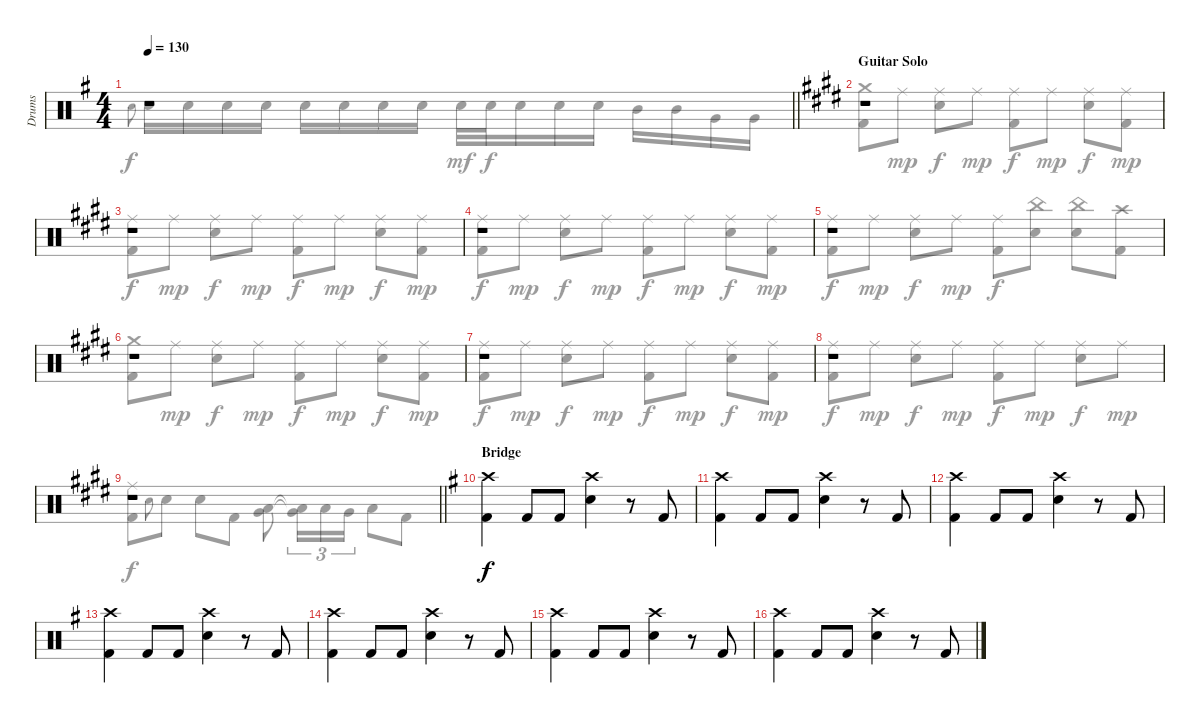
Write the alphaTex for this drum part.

\track ("Drums" "Drums") {instrument percussion}
\staff {score}
\articulation defaults
\voice
\ts (4 4)
\tempo 130
\clef neutral
\barLineRight lightlight
\ks eminor
r.1{dy f} |
\section ("" "Guitar Solo")
\ks c#minor
r.1 |
r.1 |
r.1 |
r.1 |
r.1 |
r.1 |
r.1 |
\barLineRight lightlight
r.1 |
\section ("" "Bridge")
\ks eminor
("Crash high (hit)" "Kick (hit) 2").4 "Kick (hit) 2".8 "Kick (hit) 2".8 ("Crash high (hit)" "Snare (hit) 2").4 r.8 "Kick (hit) 2".8 |
("Crash high (hit)" "Kick (hit) 2").4 "Kick (hit) 2".8 "Kick (hit) 2".8 ("Crash high (hit)" "Snare (hit) 2").4 r.8 "Kick (hit) 2".8 |
("Crash high (hit)" "Kick (hit) 2").4 "Kick (hit) 2".8 "Kick (hit) 2".8 ("Crash high (hit)" "Snare (hit) 2").4 r.8 "Kick (hit) 2".8 |
("Crash high (hit)" "Kick (hit) 2").4 "Kick (hit) 2".8 "Kick (hit) 2".8 ("Crash high (hit)" "Snare (hit) 2").4 r.8 "Kick (hit) 2".8 |
("Crash high (hit)" "Kick (hit) 2").4 "Kick (hit) 2".8 "Kick (hit) 2".8 ("Crash high (hit)" "Snare (hit) 2").4 r.8 "Kick (hit) 2".8 |
("Crash high (hit)" "Kick (hit) 2").4 "Kick (hit) 2".8 "Kick (hit) 2".8 ("Crash high (hit)" "Snare (hit) 2").4 r.8 "Kick (hit) 2".8 |
("Crash high (hit)" "Kick (hit) 2").4 "Kick (hit) 2".8 "Kick (hit) 2".8 ("Crash high (hit)" "Snare (hit) 2").4 r.8 "Kick (hit) 2".8
\voice
\clef neutral
\ottava regular
\simile none
\barLineRight lightlight
\ks eminor "Snare (hit) 2".8{gr onbeat dy f} "Snare (hit) 2".16 "Snare (hit) 2".16 "Snare (hit) 2".16 "Snare (hit) 2".16 "Snare (hit) 2".16 "Snare (hit) 2".16 "Snare (hit) 2".16 "Snare (hit) 2".16 "Snare (hit) 2".32{dy mf} "Snare (hit) 2".32{dy f} "Snare (hit) 2".16 "Snare (hit) 2".16 "Snare (hit) 2".16 "Mid Tom (hit)".16 "Mid Tom (hit)".16 "Very Low Tom (hit)".16 "Very Low Tom (hit)".16
|
\ks c#minor
("Crash medium (hit)" "Kick (hit) 2").8 "Ride (middle)".8{dy mp} ("Ride (middle)" "Snare (hit) 2").8{dy f} "Ride (middle)".8{dy mp} ("Ride (middle)" "Kick (hit) 2").8{dy f} "Ride (middle)".8{dy mp} ("Ride (middle)" "Snare (hit) 2").8{dy f} ("Ride (middle)" "Kick (hit) 2").8{dy mp} |
("Ride (middle)" "Kick (hit) 2").8{dy f} "Ride (middle)".8{dy mp} ("Ride (middle)" "Snare (hit) 2").8{dy f} "Ride (middle)".8{dy mp} ("Ride (middle)" "Kick (hit) 2").8{dy f} "Ride (middle)".8{dy mp} ("Ride (middle)" "Snare (hit) 2").8{dy f} ("Ride (middle)" "Kick (hit) 2").8{dy mp} |
("Ride (middle)" "Kick (hit) 2").8{dy f} "Ride (middle)".8{dy mp} ("Ride (middle)" "Snare (hit) 2").8{dy f} "Ride (middle)".8{dy mp} ("Ride (middle)" "Kick (hit) 2").8{dy f} "Ride (middle)".8{dy mp} ("Ride (middle)" "Snare (hit) 2").8{dy f} ("Ride (middle)" "Kick (hit) 2").8{dy mp} |
("Ride (middle)" "Kick (hit) 2").8{dy f} "Ride (middle)".8{dy mp} ("Ride (middle)" "Snare (hit) 2").8{dy f} "Ride (middle)".8{dy mp} ("Ride (middle)" "Kick (hit) 2").8{dy f} ("China (hit)" "Snare (hit) 2").8 ("China (hit)" "Snare (hit) 2").8 ("Crash high (hit)" "Kick (hit) 2").8 |
("Crash medium (hit)" "Kick (hit) 2").8 "Ride (middle)".8{dy mp} ("Ride (middle)" "Snare (hit) 2").8{dy f} "Ride (middle)".8{dy mp} ("Ride (middle)" "Kick (hit) 2").8{dy f} "Ride (middle)".8{dy mp} ("Ride (middle)" "Snare (hit) 2").8{dy f} ("Ride (middle)" "Kick (hit) 2").8{dy mp} |
("Ride (middle)" "Kick (hit) 2").8{dy f} "Ride (middle)".8{dy mp} ("Ride (middle)" "Snare (hit) 2").8{dy f} "Ride (middle)".8{dy mp} ("Ride (middle)" "Kick (hit) 2").8{dy f} "Ride (middle)".8{dy mp} ("Ride (middle)" "Snare (hit) 2").8{dy f} ("Ride (middle)" "Kick (hit) 2").8{dy mp} |
("Ride (middle)" "Kick (hit) 2").8{dy f} "Ride (middle)".8{dy mp} ("Ride (middle)" "Snare (hit) 2").8{dy f} "Ride (middle)".8{dy mp} ("Ride (middle)" "Kick (hit) 2").8{dy f} "Ride (middle)".8{dy mp} ("Ride (middle)" "Snare (hit) 2").8{dy f} "Ride (middle)".8{dy mp} |
\barLineRight lightlight
("Ride (middle)" "Kick (hit) 2").8{dy f} "Snare (hit) 2".8{gr onbeat} "Snare (hit) 2".8 "Snare (hit) 2".8 "Kick (hit) 2".8 ("Low Tom (hit)" "Very Low Tom (hit)").8 ("Low Tom (hit)"{t} "Very Low Tom (hit)"{t}).16{tu (3 2)} "Low Tom (hit)".16{tu (3 2)} "Very Low Tom (hit)".16{tu (3 2)} "Low Floor Tom (hit)".8 "Kick (hit) 2".8 |
\ks eminor
|
|
|
|
|
|
